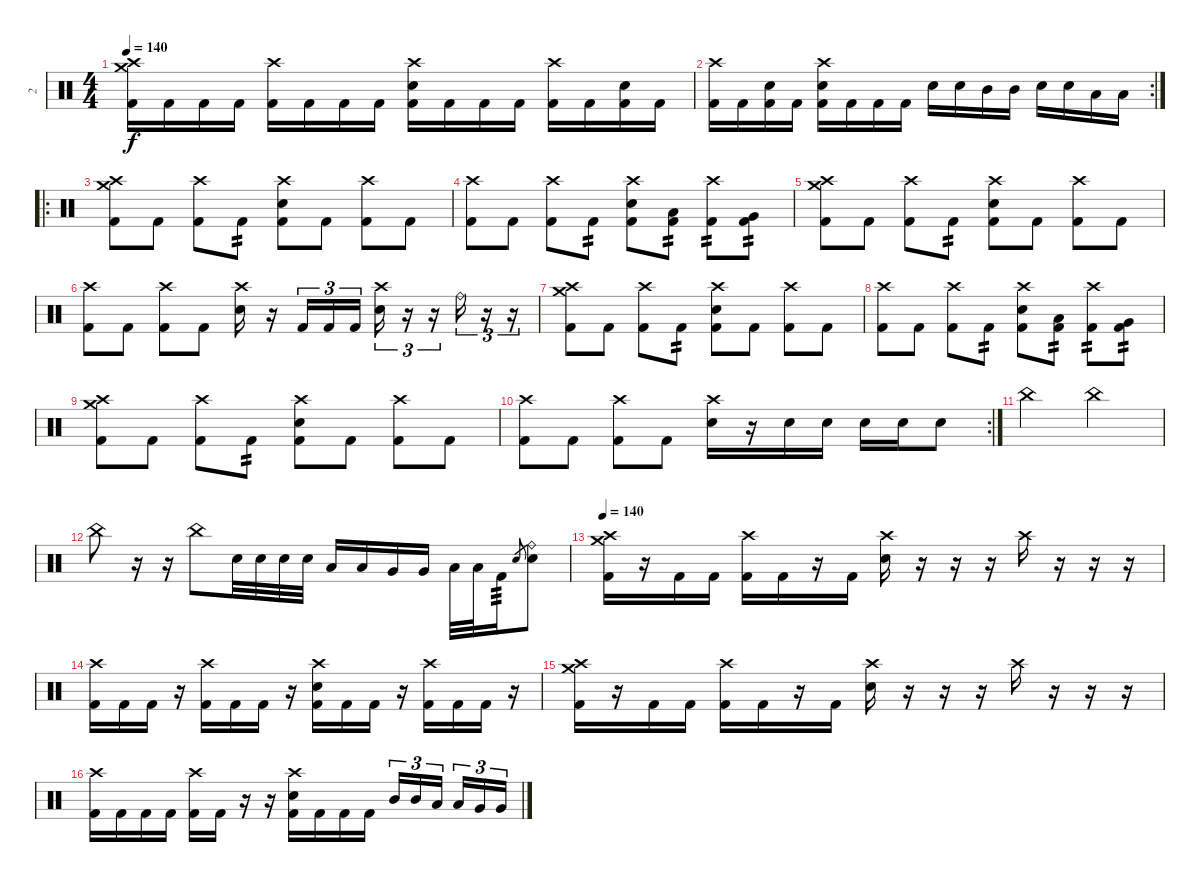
\track ("2" "2") {instrument percussion}
\staff {score}
\articulation defaults
\ts (4 4)
\tempo 140
\clef neutral
\ks c
("Crash medium (hit)" "Crash high (hit)" "Kick (hit) 2").16{dy f} "Kick (hit) 2".16 "Kick (hit) 2".16 "Kick (hit) 2".16 ("Crash high (hit)" "Kick (hit) 2").16 "Kick (hit) 2".16 "Kick (hit) 2".16 "Kick (hit) 2".16 ("Crash high (hit)" "Snare (hit) 2" "Kick (hit) 2").16 "Kick (hit) 2".16 "Kick (hit) 2".16 "Kick (hit) 2".16 ("Crash high (hit)" "Kick (hit) 2").16 "Kick (hit) 2".16 ("Snare (hit) 2" "Kick (hit) 2").16 "Kick (hit) 2".16 |
\rc 2
("Crash high (hit)" "Kick (hit) 2").16 "Kick (hit) 2".16 ("Snare (hit) 2" "Kick (hit) 2").16 "Kick (hit) 2".16 ("Crash high (hit)" "Snare (hit) 2" "Kick (hit) 2").16 "Kick (hit) 2".16 "Kick (hit) 2".16 "Kick (hit) 2".16 "Snare (hit) 2".16 "Snare (hit) 2".16 "Mid Tom (hit)".16 "Mid Tom (hit)".16 "Snare (hit) 2".16 "Snare (hit) 2".16 "Low Tom (hit)".16 "Low Tom (hit)".16 |
\ro
("Crash medium (hit)" "Crash high (hit)" "Kick (hit) 2").8 "Kick (hit) 2".8 ("Crash high (hit)" "Kick (hit) 2").8 "Kick (hit) 2".8{tp 2} ("Crash high (hit)" "Snare (hit) 2" "Kick (hit) 2").8 "Kick (hit) 2".8 ("Crash high (hit)" "Kick (hit) 2").8 "Kick (hit) 2".8 |
("Crash high (hit)" "Kick (hit) 2").8 "Kick (hit) 2".8 ("Crash high (hit)" "Kick (hit) 2").8 "Kick (hit) 2".8{tp 2} ("Crash high (hit)" "Snare (hit) 2" "Kick (hit) 2").8 ("Low Floor Tom (hit)" "Kick (hit) 2").8{tp 2} ("Crash high (hit)" "Kick (hit) 2").8{tp 2} ("Very Low Tom (hit)" "Kick (hit) 2").8{tp 2} |
("Crash medium (hit)" "Crash high (hit)" "Kick (hit) 2").8 "Kick (hit) 2".8 ("Crash high (hit)" "Kick (hit) 2").8 "Kick (hit) 2".8{tp 2} ("Crash high (hit)" "Snare (hit) 2" "Kick (hit) 2").8 "Kick (hit) 2".8 ("Crash high (hit)" "Kick (hit) 2").8 "Kick (hit) 2".8 |
("Crash high (hit)" "Kick (hit) 2").8 "Kick (hit) 2".8 ("Crash high (hit)" "Kick (hit) 2").8 "Kick (hit) 2".8 ("Crash high (hit)" "Snare (hit) 2").16 r.16 "Kick (hit) 2".16{tu (3 2)} "Kick (hit) 2".16{tu (3 2)} "Kick (hit) 2".16{tu (3 2)} ("Crash high (hit)" "Snare (hit) 2").16{tu (3 2)} r.16{tu (3 2)} r.16{tu (3 2)} "Ride (bell)".16{tu (3 2)} r.16{tu (3 2)} r.16{tu (3 2)} |
("Crash medium (hit)" "Crash high (hit)" "Kick (hit) 2").8 "Kick (hit) 2".8 ("Crash high (hit)" "Kick (hit) 2").8 "Kick (hit) 2".8{tp 2} ("Crash high (hit)" "Snare (hit) 2" "Kick (hit) 2").8 "Kick (hit) 2".8 ("Crash high (hit)" "Kick (hit) 2").8 "Kick (hit) 2".8 |
("Crash high (hit)" "Kick (hit) 2").8 "Kick (hit) 2".8 ("Crash high (hit)" "Kick (hit) 2").8 "Kick (hit) 2".8{tp 2} ("Crash high (hit)" "Snare (hit) 2" "Kick (hit) 2").8 ("Low Floor Tom (hit)" "Kick (hit) 2").8{tp 2} ("Crash high (hit)" "Kick (hit) 2").8{tp 2} ("Very Low Tom (hit)" "Kick (hit) 2").8{tp 2} |
("Crash medium (hit)" "Crash high (hit)" "Kick (hit) 2").8 "Kick (hit) 2".8 ("Crash high (hit)" "Kick (hit) 2").8 "Kick (hit) 2".8{tp 2} ("Crash high (hit)" "Snare (hit) 2" "Kick (hit) 2").8 "Kick (hit) 2".8 ("Crash high (hit)" "Kick (hit) 2").8 "Kick (hit) 2".8 |
\rc 2
("Crash high (hit)" "Kick (hit) 2").8 "Kick (hit) 2".8 ("Crash high (hit)" "Kick (hit) 2").8 "Kick (hit) 2".8 ("Crash high (hit)" "Snare (hit) 2").16 r.16 "Snare (hit) 2".16 "Snare (hit) 2".16 "Snare (hit) 2".16 "Snare (hit) 2".16 "Snare (hit) 2".8 |
"China (hit)".2 "China (hit)".2 |
"China (hit)".8 r.16 r.16 "China (hit)".8 "Snare (hit) 2".32 "Snare (hit) 2".32 "Snare (hit) 2".32 "Snare (hit) 2".32 "Low Floor Tom (hit)".16 "Low Floor Tom (hit)".16 "Very Low Tom (hit)".16 "Very Low Tom (hit)".16 "Low Tom (hit)".32 "Low Tom (hit)".32 "Kick (hit) 2".16{tp 3} "Electric Snare (hit)".8{gr} ("Ride (bell)" "Electric Snare (hit)").8 |
\tempo 140
("Crash medium (hit)" "Crash high (hit)" "Kick (hit) 2").16 r.16 "Kick (hit) 2".16 "Kick (hit) 2".16 ("Crash high (hit)" "Kick (hit) 2").16 "Kick (hit) 2".16 r.16 "Kick (hit) 2".16 ("Crash high (hit)" "Snare (hit) 2").16 r.16 r.16 r.16 "Crash high (hit)".16 r.16 r.16 r.16 |
("Crash high (hit)" "Kick (hit) 2").16 "Kick (hit) 2".16 "Kick (hit) 2".16 r.16 ("Crash high (hit)" "Kick (hit) 2").16 "Kick (hit) 2".16 "Kick (hit) 2".16 r.16 ("Crash high (hit)" "Snare (hit) 2" "Kick (hit) 2").16 "Kick (hit) 2".16 "Kick (hit) 2".16 r.16 ("Crash high (hit)" "Kick (hit) 2").16 "Kick (hit) 2".16 "Kick (hit) 2".16 r.16 |
("Crash medium (hit)" "Crash high (hit)" "Kick (hit) 2").16 r.16 "Kick (hit) 2".16 "Kick (hit) 2".16 ("Crash high (hit)" "Kick (hit) 2").16 "Kick (hit) 2".16 r.16 "Kick (hit) 2".16 ("Crash high (hit)" "Snare (hit) 2").16 r.16 r.16 r.16 "Crash high (hit)".16 r.16 r.16 r.16 |
("Crash high (hit)" "Kick (hit) 2").16 "Kick (hit) 2".16 "Kick (hit) 2".16 "Kick (hit) 2".16 ("Crash high (hit)" "Kick (hit) 2").16 "Kick (hit) 2".16 r.16 r.16 ("Crash high (hit)" "Snare (hit) 2" "Kick (hit) 2").16 "Kick (hit) 2".16 "Kick (hit) 2".16 "Kick (hit) 2".16 "Mid Tom (hit)".16{tu (3 2)} "Mid Tom (hit)".16{tu (3 2)} "Low Tom (hit)".16{tu (3 2) beam splitsecondary} "Low Tom (hit)".16{tu (3 2)} "Very Low Tom (hit)".16{tu (3 2)} "Very Low Tom (hit)".16{tu (3 2)}
